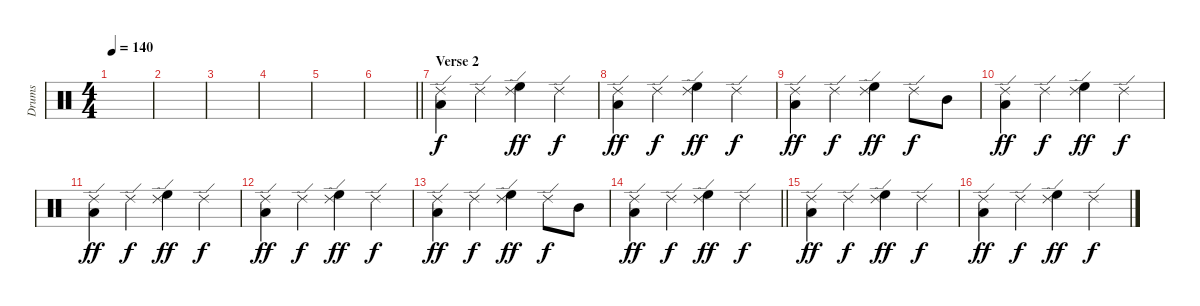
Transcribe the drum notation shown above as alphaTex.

\track ("Drums" "Drums") {instrument percussion}
\staff {score}
\articulation defaults
\ts (4 4)
\tempo 140
\clef neutral
\ks c
|
|
|
|
|
\barLineRight lightlight
|
\section ("" "Verse 2")
("Low Tom (hit)" "Ride (edge) 2").4 "Ride (edge) 2".4{dy f} ("High Floor Tom (hit)" "Ride (edge) 2").4{dy ff} "Ride (edge) 2".4{dy f} |
("Low Tom (hit)" "Ride (edge) 2").4{dy ff} "Ride (edge) 2".4{dy f} ("High Floor Tom (hit)" "Ride (edge) 2").4{dy ff} "Ride (edge) 2".4{dy f} |
("Low Tom (hit)" "Ride (edge) 2").4{dy ff} "Ride (edge) 2".4{dy f} ("High Floor Tom (hit)" "Ride (edge) 2").4{dy ff} "Ride (edge) 2".8{dy f} "Mid Tom (hit)".8 |
("Low Tom (hit)" "Ride (edge) 2").4{dy ff} "Ride (edge) 2".4{dy f} ("High Floor Tom (hit)" "Ride (edge) 2").4{dy ff} "Ride (edge) 2".4{dy f} |
("Low Tom (hit)" "Ride (edge) 2").4{dy ff} "Ride (edge) 2".4{dy f} ("High Floor Tom (hit)" "Ride (edge) 2").4{dy ff} "Ride (edge) 2".4{dy f} |
("Low Tom (hit)" "Ride (edge) 2").4{dy ff} "Ride (edge) 2".4{dy f} ("High Floor Tom (hit)" "Ride (edge) 2").4{dy ff} "Ride (edge) 2".4{dy f} |
("Low Tom (hit)" "Ride (edge) 2").4{dy ff} "Ride (edge) 2".4{dy f} ("High Floor Tom (hit)" "Ride (edge) 2").4{dy ff} "Ride (edge) 2".8{dy f} "Mid Tom (hit)".8 |
\barLineRight lightlight
("Low Tom (hit)" "Ride (edge) 2").4{dy ff} "Ride (edge) 2".4{dy f} ("High Floor Tom (hit)" "Ride (edge) 2").4{dy ff} "Ride (edge) 2".4{dy f} |
("Low Tom (hit)" "Ride (edge) 2").4{dy ff} "Ride (edge) 2".4{dy f} ("High Floor Tom (hit)" "Ride (edge) 2").4{dy ff} "Ride (edge) 2".4{dy f} |
("Low Tom (hit)" "Ride (edge) 2").4{dy ff} "Ride (edge) 2".4{dy f} ("High Floor Tom (hit)" "Ride (edge) 2").4{dy ff} "Ride (edge) 2".4{dy f}
